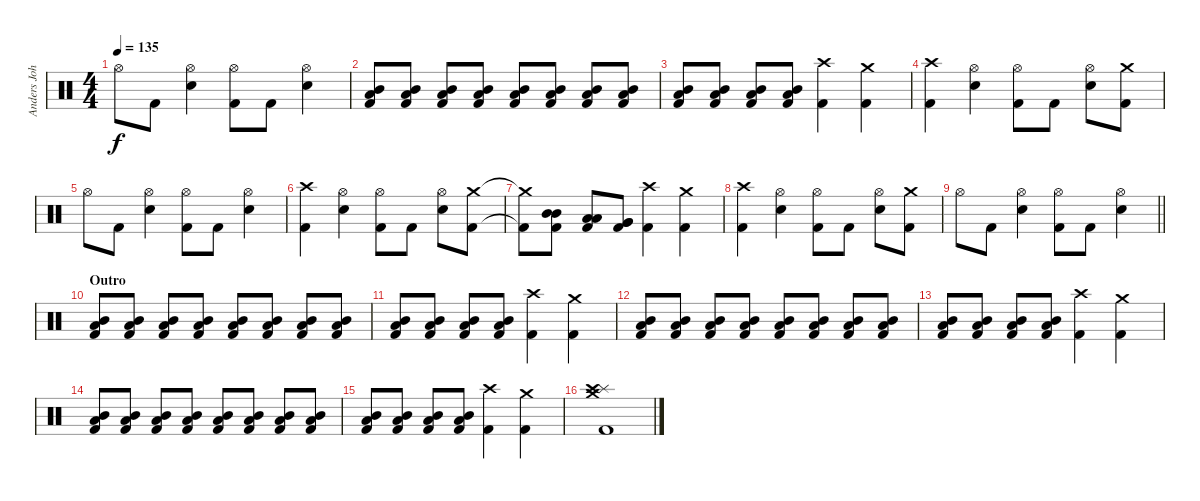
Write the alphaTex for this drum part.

\track ("Anders Johansson" "Anders Joh") {instrument percussion}
\staff {score}
\articulation defaults
\ts (4 4)
\tempo 135
\clef neutral
\ks c "Hi-Hat (open)".8{dy f} "Kick (hit) 2".8
("Hi-Hat (open)" "Snare (hit) 2").4 ("Hi-Hat (open)" "Kick (hit) 2").8 "Kick (hit) 2".8 ("Hi-Hat (open)" "Snare (hit) 2").4 |
("Low Tom (hit)" "Mid Tom (hit)" "Kick (hit) 2").8 ("Low Tom (hit)" "Mid Tom (hit)" "Kick (hit) 2").8 ("Low Tom (hit)" "Mid Tom (hit)" "Kick (hit) 2").8 ("Low Tom (hit)" "Mid Tom (hit)" "Kick (hit) 2").8 ("Low Tom (hit)" "Mid Tom (hit)" "Kick (hit) 2").8 ("Low Tom (hit)" "Mid Tom (hit)" "Kick (hit) 2").8 ("Low Tom (hit)" "Mid Tom (hit)" "Kick (hit) 2").8 ("Low Tom (hit)" "Mid Tom (hit)" "Kick (hit) 2").8 |
("Low Tom (hit)" "Mid Tom (hit)" "Kick (hit) 2").8 ("Low Tom (hit)" "Mid Tom (hit)" "Kick (hit) 2").8 ("Low Tom (hit)" "Mid Tom (hit)" "Kick (hit) 2").8 ("Low Tom (hit)" "Mid Tom (hit)" "Kick (hit) 2").8 ("Crash high (hit)" "Kick (hit) 2").4 ("Crash medium (hit)" "Kick (hit) 2").4 |
("Crash high (hit)" "Kick (hit) 2").4 ("Hi-Hat (open)" "Snare (hit) 2").4 ("Hi-Hat (open)" "Kick (hit) 2").8 "Kick (hit) 2".8 ("Hi-Hat (open)" "Snare (hit) 2").8 ("Crash medium (hit)" "Kick (hit) 2").8 |
"Hi-Hat (open)".8 "Kick (hit) 2".8 ("Hi-Hat (open)" "Snare (hit) 2").4 ("Hi-Hat (open)" "Kick (hit) 2").8 "Kick (hit) 2".8 ("Hi-Hat (open)" "Snare (hit) 2").4 |
("Crash high (hit)" "Kick (hit) 2").4 ("Hi-Hat (open)" "Snare (hit) 2").4 ("Hi-Hat (open)" "Kick (hit) 2").8 "Kick (hit) 2".8 ("Hi-Hat (open)" "Snare (hit) 2").8 ("Crash medium (hit)" "Kick (hit) 2").8 |
("Crash medium (hit)"{t} "Kick (hit) 2"{t}).8 ("Mid Tom (hit)" "Mid Tom (hit)" "Kick (hit) 2").8 ("Low Tom (hit)" "Low Tom (hit)" "Kick (hit) 2").8 ("Very Low Tom (hit)" "Very Low Tom (hit)" "Kick (hit) 2").8 ("Crash high (hit)" "Kick (hit) 2").4 ("Crash medium (hit)" "Kick (hit) 2").4 |
("Crash high (hit)" "Kick (hit) 2").4 ("Hi-Hat (open)" "Snare (hit) 2").4 ("Hi-Hat (open)" "Kick (hit) 2").8 "Kick (hit) 2".8 ("Hi-Hat (open)" "Snare (hit) 2").8 ("Crash medium (hit)" "Kick (hit) 2").8 |
\barLineRight lightlight "Hi-Hat (open)".8 "Kick (hit) 2".8
("Hi-Hat (open)" "Snare (hit) 2").4 ("Hi-Hat (open)" "Kick (hit) 2").8 "Kick (hit) 2".8 ("Hi-Hat (open)" "Snare (hit) 2").4 |
\section ("" "Outro")
("Low Tom (hit)" "Mid Tom (hit)" "Kick (hit) 2").8 ("Low Tom (hit)" "Mid Tom (hit)" "Kick (hit) 2").8 ("Low Tom (hit)" "Mid Tom (hit)" "Kick (hit) 2").8 ("Low Tom (hit)" "Mid Tom (hit)" "Kick (hit) 2").8 ("Low Tom (hit)" "Mid Tom (hit)" "Kick (hit) 2").8 ("Low Tom (hit)" "Mid Tom (hit)" "Kick (hit) 2").8 ("Low Tom (hit)" "Mid Tom (hit)" "Kick (hit) 2").8 ("Low Tom (hit)" "Mid Tom (hit)" "Kick (hit) 2").8 |
("Low Tom (hit)" "Mid Tom (hit)" "Kick (hit) 2").8 ("Low Tom (hit)" "Mid Tom (hit)" "Kick (hit) 2").8 ("Low Tom (hit)" "Mid Tom (hit)" "Kick (hit) 2").8 ("Low Tom (hit)" "Mid Tom (hit)" "Kick (hit) 2").8 ("Crash high (hit)" "Kick (hit) 2").4 ("Crash medium (hit)" "Kick (hit) 2").4 |
("Low Tom (hit)" "Mid Tom (hit)" "Kick (hit) 2").8 ("Low Tom (hit)" "Mid Tom (hit)" "Kick (hit) 2").8 ("Low Tom (hit)" "Mid Tom (hit)" "Kick (hit) 2").8 ("Low Tom (hit)" "Mid Tom (hit)" "Kick (hit) 2").8 ("Low Tom (hit)" "Mid Tom (hit)" "Kick (hit) 2").8 ("Low Tom (hit)" "Mid Tom (hit)" "Kick (hit) 2").8 ("Low Tom (hit)" "Mid Tom (hit)" "Kick (hit) 2").8 ("Low Tom (hit)" "Mid Tom (hit)" "Kick (hit) 2").8 |
("Low Tom (hit)" "Mid Tom (hit)" "Kick (hit) 2").8 ("Low Tom (hit)" "Mid Tom (hit)" "Kick (hit) 2").8 ("Low Tom (hit)" "Mid Tom (hit)" "Kick (hit) 2").8 ("Low Tom (hit)" "Mid Tom (hit)" "Kick (hit) 2").8 ("Crash high (hit)" "Kick (hit) 2").4 ("Crash medium (hit)" "Kick (hit) 2").4 |
("Low Tom (hit)" "Mid Tom (hit)" "Kick (hit) 2").8 ("Low Tom (hit)" "Mid Tom (hit)" "Kick (hit) 2").8 ("Low Tom (hit)" "Mid Tom (hit)" "Kick (hit) 2").8 ("Low Tom (hit)" "Mid Tom (hit)" "Kick (hit) 2").8 ("Low Tom (hit)" "Mid Tom (hit)" "Kick (hit) 2").8 ("Low Tom (hit)" "Mid Tom (hit)" "Kick (hit) 2").8 ("Low Tom (hit)" "Mid Tom (hit)" "Kick (hit) 2").8 ("Low Tom (hit)" "Mid Tom (hit)" "Kick (hit) 2").8 |
("Low Tom (hit)" "Mid Tom (hit)" "Kick (hit) 2").8 ("Low Tom (hit)" "Mid Tom (hit)" "Kick (hit) 2").8 ("Low Tom (hit)" "Mid Tom (hit)" "Kick (hit) 2").8 ("Low Tom (hit)" "Mid Tom (hit)" "Kick (hit) 2").8 ("Crash high (hit)" "Kick (hit) 2").4 ("Crash medium (hit)" "Kick (hit) 2").4 |
("Splash (hit)" "Crash medium (hit)" "Crash high (hit)" "Kick (hit) 2").1
